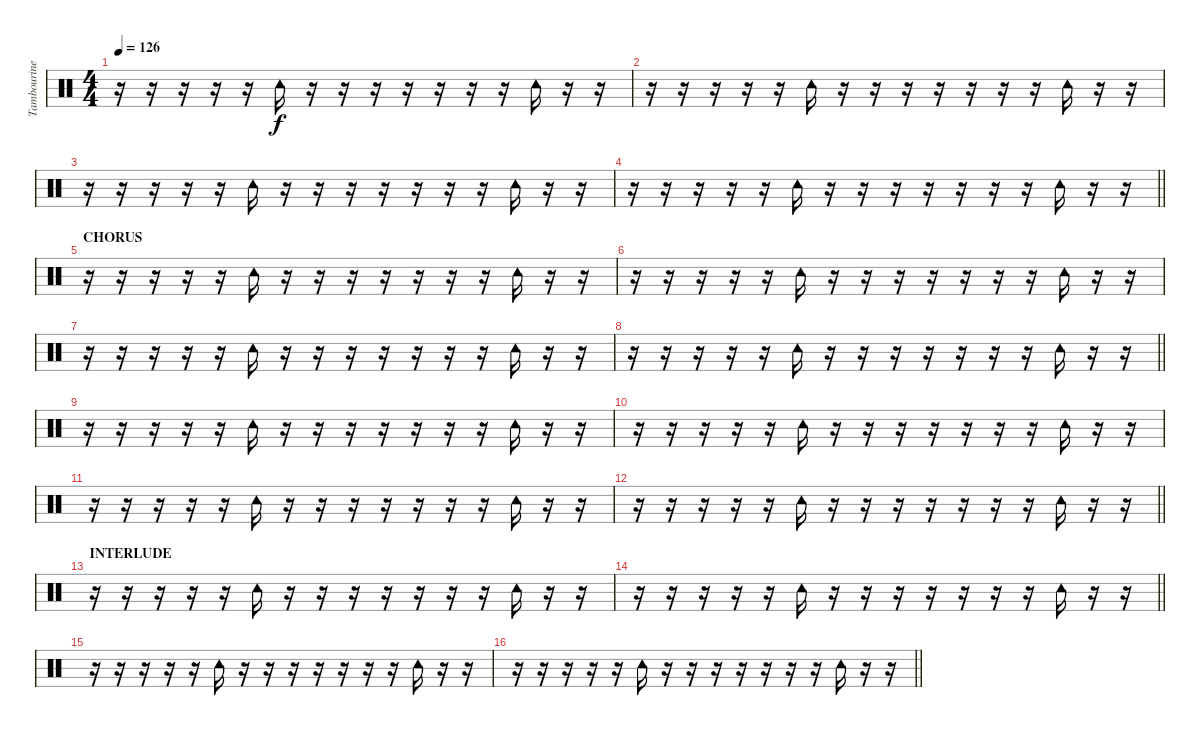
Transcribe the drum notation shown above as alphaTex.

\track ("Tambourine" "Tambourine") {instrument percussion}
\staff {score}
\articulation defaults
\ts (4 4)
\tempo 126
\clef neutral
\ks c
r.16{dy f} r.16 r.16 r.16 r.16 "Tambourine (hit)".16 r.16 r.16 r.16 r.16 r.16 r.16 r.16 "Tambourine (hit)".16 r.16 r.16 |
r.16 r.16 r.16 r.16 r.16 "Tambourine (hit)".16 r.16 r.16 r.16 r.16 r.16 r.16 r.16 "Tambourine (hit)".16 r.16 r.16 |
r.16 r.16 r.16 r.16 r.16 "Tambourine (hit)".16 r.16 r.16 r.16 r.16 r.16 r.16 r.16 "Tambourine (hit)".16 r.16 r.16 |
\barLineRight lightlight
r.16 r.16 r.16 r.16 r.16 "Tambourine (hit)".16 r.16 r.16 r.16 r.16 r.16 r.16 r.16 "Tambourine (hit)".16 r.16 r.16 |
\section ("" "CHORUS")
r.16 r.16 r.16 r.16 r.16 "Tambourine (hit)".16 r.16 r.16 r.16 r.16 r.16 r.16 r.16 "Tambourine (hit)".16 r.16 r.16 |
r.16 r.16 r.16 r.16 r.16 "Tambourine (hit)".16 r.16 r.16 r.16 r.16 r.16 r.16 r.16 "Tambourine (hit)".16 r.16 r.16 |
r.16 r.16 r.16 r.16 r.16 "Tambourine (hit)".16 r.16 r.16 r.16 r.16 r.16 r.16 r.16 "Tambourine (hit)".16 r.16 r.16 |
\barLineRight lightlight
r.16 r.16 r.16 r.16 r.16 "Tambourine (hit)".16 r.16 r.16 r.16 r.16 r.16 r.16 r.16 "Tambourine (hit)".16 r.16 r.16 |
r.16 r.16 r.16 r.16 r.16 "Tambourine (hit)".16 r.16 r.16 r.16 r.16 r.16 r.16 r.16 "Tambourine (hit)".16 r.16 r.16 |
r.16 r.16 r.16 r.16 r.16 "Tambourine (hit)".16 r.16 r.16 r.16 r.16 r.16 r.16 r.16 "Tambourine (hit)".16 r.16 r.16 |
r.16 r.16 r.16 r.16 r.16 "Tambourine (hit)".16 r.16 r.16 r.16 r.16 r.16 r.16 r.16 "Tambourine (hit)".16 r.16 r.16 |
\barLineRight lightlight
r.16 r.16 r.16 r.16 r.16 "Tambourine (hit)".16 r.16 r.16 r.16 r.16 r.16 r.16 r.16 "Tambourine (hit)".16 r.16 r.16 |
\section ("" "INTERLUDE")
r.16 r.16 r.16 r.16 r.16 "Tambourine (hit)".16 r.16 r.16 r.16 r.16 r.16 r.16 r.16 "Tambourine (hit)".16 r.16 r.16 |
\barLineRight lightlight
r.16 r.16 r.16 r.16 r.16 "Tambourine (hit)".16 r.16 r.16 r.16 r.16 r.16 r.16 r.16 "Tambourine (hit)".16 r.16 r.16 |
r.16 r.16 r.16 r.16 r.16 "Tambourine (hit)".16 r.16 r.16 r.16 r.16 r.16 r.16 r.16 "Tambourine (hit)".16 r.16 r.16 |
\barLineRight lightlight
r.16 r.16 r.16 r.16 r.16 "Tambourine (hit)".16 r.16 r.16 r.16 r.16 r.16 r.16 r.16 "Tambourine (hit)".16 r.16 r.16
